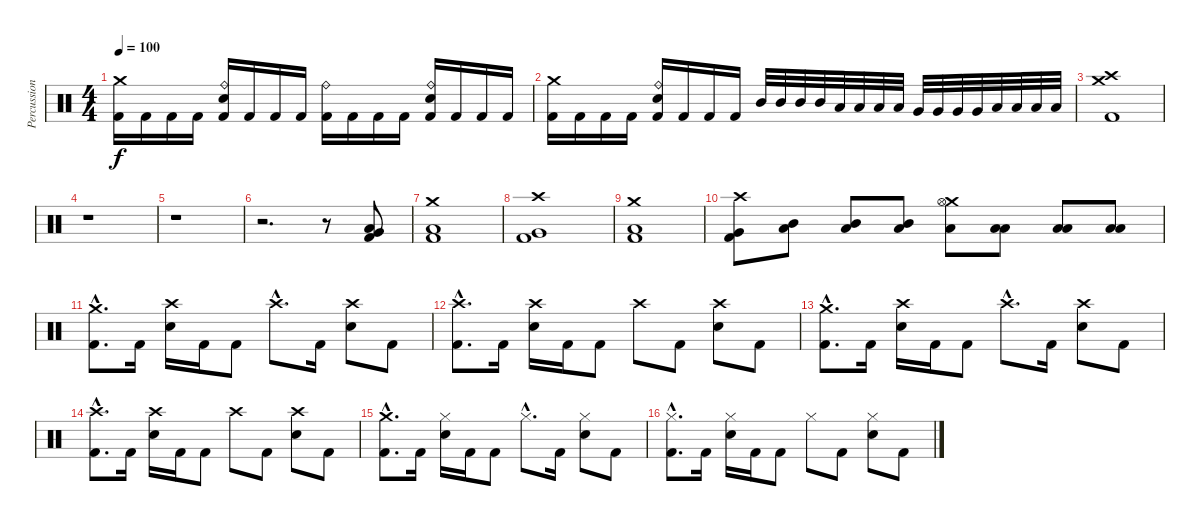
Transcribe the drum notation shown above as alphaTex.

\track ("Percussion" "Percussion") {instrument percussion}
\staff {score}
\articulation defaults
\ts (4 4)
\tempo 100
\clef neutral
\ks c
("Crash medium (hit)" "Kick (hit) 2").16{dy f} "Kick (hit) 2".16 "Kick (hit) 2".16 "Kick (hit) 2".16 ("Ride (bell)" "Electric Snare (hit)" "Kick (hit) 2").16 "Kick (hit) 2".16 "Kick (hit) 2".16 "Kick (hit) 2".16 ("Ride (bell)" "Kick (hit) 2").16 "Kick (hit) 2".16 "Kick (hit) 2".16 "Kick (hit) 2".16 ("Ride (bell)" "Electric Snare (hit)" "Kick (hit) 2").16 "Kick (hit) 2".16 "Kick (hit) 2".16 "Kick (hit) 2".16 |
("Crash medium (hit)" "Kick (hit) 2").16 "Kick (hit) 2".16 "Kick (hit) 2".16 "Kick (hit) 2".16 ("Ride (bell)" "Electric Snare (hit)" "Kick (hit) 2").16 "Kick (hit) 2".16 "Kick (hit) 2".16 "Kick (hit) 2".16 "Mid Tom (hit)".32 "Mid Tom (hit)".32 "Mid Tom (hit)".32 "Mid Tom (hit)".32 "Low Tom (hit)".32 "Low Tom (hit)".32 "Low Tom (hit)".32 "Low Tom (hit)".32 "Very Low Tom (hit)".32 "Very Low Tom (hit)".32 "Very Low Tom (hit)".32 "Very Low Tom (hit)".32 "Low Floor Tom (hit)".32 "Low Floor Tom (hit)".32 "Low Floor Tom (hit)".32 "Low Floor Tom (hit)".32 |
("Crash medium (hit)" "Crash high (hit)" "Kick (hit) 2").1 |
r.1 |
r.1 |
r.2{d} r.8 ("Very Low Tom (hit)" "Low Floor Tom (hit)" "Kick (hit) 2").8 |
("Crash medium (hit)" "Low Floor Tom (hit)" "Kick (hit) 2").1 |
("Crash high (hit)" "Very Low Tom (hit)" "Kick (hit) 2").1 |
("Crash medium (hit)" "Low Floor Tom (hit)" "Kick (hit) 2").1 |
("Crash high (hit)" "Very Low Tom (hit)" "Kick (hit) 2").8 ("Mid Tom (hit)" "Low Floor Tom (hit)").8 ("Mid Tom (hit)" "Low Floor Tom (hit)").8 ("Mid Tom (hit)" "Low Floor Tom (hit)").8 ("Crash medium (hit)" "Low Floor Tom (hit)" "Hi-Hat (open)").8 ("Low Tom (hit)" "Low Floor Tom (hit)").8 ("Low Tom (hit)" "Low Floor Tom (hit)").8 ("Low Tom (hit)" "Low Floor Tom (hit)").8 |
("Crash medium (hit)"{hac} "Kick (hit) 2"{hac}).8{d} "Kick (hit) 2".16 ("Crash high (hit)" "Electric Snare (hit)").16 "Kick (hit) 2".16 "Kick (hit) 2".8 "Crash high (hit)"{hac}.8{d} "Kick (hit) 2".16 ("Crash high (hit)" "Electric Snare (hit)").8 "Kick (hit) 2".8 |
("Crash high (hit)"{hac} "Kick (hit) 2"{hac}).8{d} "Kick (hit) 2".16 ("Crash high (hit)" "Electric Snare (hit)").16 "Kick (hit) 2".16 "Kick (hit) 2".8 "Crash high (hit)".8 "Kick (hit) 2".8 ("Crash high (hit)" "Electric Snare (hit)").8 "Kick (hit) 2".8 |
("Crash medium (hit)"{hac} "Kick (hit) 2"{hac}).8{d} "Kick (hit) 2".16 ("Crash high (hit)" "Electric Snare (hit)").16 "Kick (hit) 2".16 "Kick (hit) 2".8 "Crash high (hit)"{hac}.8{d} "Kick (hit) 2".16 ("Crash high (hit)" "Electric Snare (hit)").8 "Kick (hit) 2".8 |
("Crash high (hit)"{hac} "Kick (hit) 2"{hac}).8{d} "Kick (hit) 2".16 ("Crash high (hit)" "Electric Snare (hit)").16 "Kick (hit) 2".16 "Kick (hit) 2".8 "Crash high (hit)".8 "Kick (hit) 2".8 ("Crash high (hit)" "Electric Snare (hit)").8 "Kick (hit) 2".8 |
("Crash medium (hit)"{hac} "Kick (hit) 2"{hac}).8{d} "Kick (hit) 2".16 ("Hi-Hat (closed)" "Electric Snare (hit)").16 "Kick (hit) 2".16 "Kick (hit) 2".8 "Hi-Hat (closed)"{hac}.8{d} "Kick (hit) 2".16 ("Hi-Hat (closed)" "Electric Snare (hit)").8 "Kick (hit) 2".8 |
("Hi-Hat (closed)"{hac} "Kick (hit) 2"{hac}).8{d} "Kick (hit) 2".16 ("Hi-Hat (closed)" "Electric Snare (hit)").16 "Kick (hit) 2".16 "Kick (hit) 2".8 "Hi-Hat (closed)".8 "Kick (hit) 2".8 ("Hi-Hat (closed)" "Electric Snare (hit)").8 "Kick (hit) 2".8
